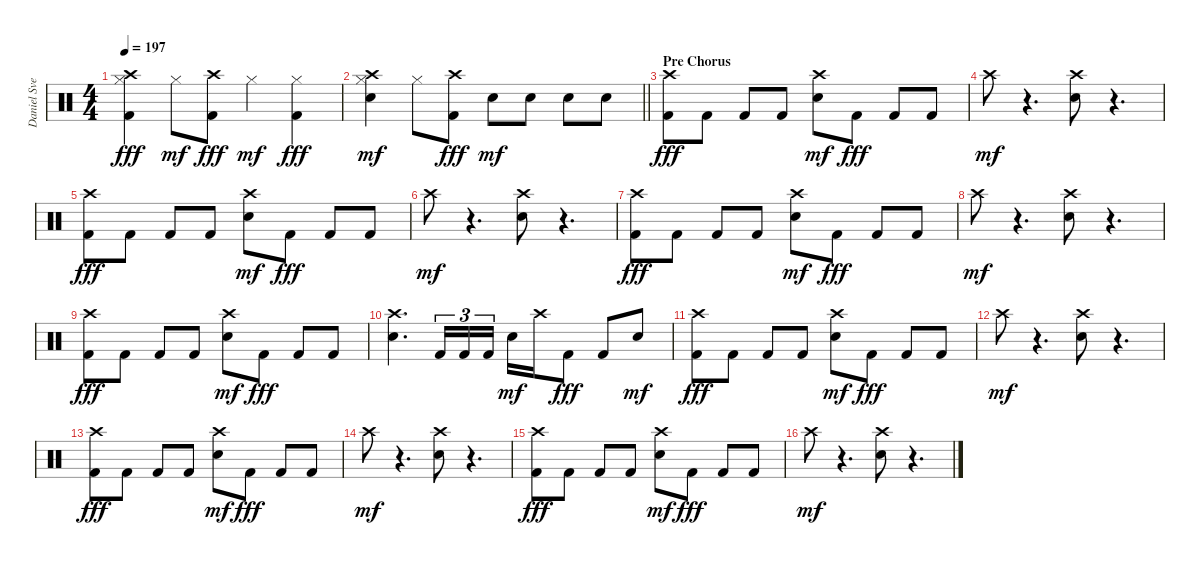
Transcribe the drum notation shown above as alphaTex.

\track ("Daniel Svensson" "Daniel Sve") {instrument percussion}
\staff {score}
\articulation defaults
\ts (4 4)
\tempo 197
\clef neutral
\ks c
("Crash high (hit)" "Hi-Hat (closed)" "Kick (hit) 2").4{dy fff} "Hi-Hat (closed)".8{dy mf} ("Crash high (hit)" "Kick (hit) 2").8{dy fff} "Hi-Hat (closed)".4{dy mf} ("Hi-Hat (closed)" "Kick (hit) 2").4{dy fff} |
\barLineRight lightlight
("Crash high (hit)" "Hi-Hat (closed)" "Electric Snare (hit)").4{dy mf} "Hi-Hat (closed)".8 ("Crash high (hit)" "Kick (hit) 2").8{dy fff} "Electric Snare (hit)".8{dy mf} "Electric Snare (hit)".8 "Electric Snare (hit)".8 "Electric Snare (hit)".8 |
\section ("" "Pre Chorus")
("Crash high (hit)" "Kick (hit) 2").8{dy fff} "Kick (hit) 2".8 "Kick (hit) 2".8 "Kick (hit) 2".8 ("Crash high (hit)" "Electric Snare (hit)").8{dy mf} "Kick (hit) 2".8{dy fff} "Kick (hit) 2".8 "Kick (hit) 2".8 |
"Crash high (hit)".8{dy mf} r.4{d} ("Crash high (hit)" "Electric Snare (hit)").8 r.4{d} |
("Crash high (hit)" "Kick (hit) 2").8{dy fff} "Kick (hit) 2".8 "Kick (hit) 2".8 "Kick (hit) 2".8 ("Crash high (hit)" "Electric Snare (hit)").8{dy mf} "Kick (hit) 2".8{dy fff} "Kick (hit) 2".8 "Kick (hit) 2".8 |
"Crash high (hit)".8{dy mf} r.4{d} ("Crash high (hit)" "Electric Snare (hit)").8 r.4{d} |
("Crash high (hit)" "Kick (hit) 2").8{dy fff} "Kick (hit) 2".8 "Kick (hit) 2".8 "Kick (hit) 2".8 ("Crash high (hit)" "Electric Snare (hit)").8{dy mf} "Kick (hit) 2".8{dy fff} "Kick (hit) 2".8 "Kick (hit) 2".8 |
"Crash high (hit)".8{dy mf} r.4{d} ("Crash high (hit)" "Electric Snare (hit)").8 r.4{d} |
("Crash high (hit)" "Kick (hit) 2").8{dy fff} "Kick (hit) 2".8 "Kick (hit) 2".8 "Kick (hit) 2".8 ("Crash high (hit)" "Electric Snare (hit)").8{dy mf} "Kick (hit) 2".8{dy fff} "Kick (hit) 2".8 "Kick (hit) 2".8 |
("Crash high (hit)" "Electric Snare (hit)").4{d} "Kick (hit) 2".16{tu (3 2)} "Kick (hit) 2".16{tu (3 2)} "Kick (hit) 2".16{tu (3 2)} "Electric Snare (hit)".16{dy mf} "Crash high (hit)".16 "Kick (hit) 2".8{dy fff} "Kick (hit) 2".8 "Electric Snare (hit)".8{dy mf} |
("Crash high (hit)" "Kick (hit) 2").8{dy fff} "Kick (hit) 2".8 "Kick (hit) 2".8 "Kick (hit) 2".8 ("Crash high (hit)" "Electric Snare (hit)").8{dy mf} "Kick (hit) 2".8{dy fff} "Kick (hit) 2".8 "Kick (hit) 2".8 |
"Crash high (hit)".8{dy mf} r.4{d} ("Crash high (hit)" "Electric Snare (hit)").8 r.4{d} |
("Crash high (hit)" "Kick (hit) 2").8{dy fff} "Kick (hit) 2".8 "Kick (hit) 2".8 "Kick (hit) 2".8 ("Crash high (hit)" "Electric Snare (hit)").8{dy mf} "Kick (hit) 2".8{dy fff} "Kick (hit) 2".8 "Kick (hit) 2".8 |
"Crash high (hit)".8{dy mf} r.4{d} ("Crash high (hit)" "Electric Snare (hit)").8 r.4{d} |
("Crash high (hit)" "Kick (hit) 2").8{dy fff} "Kick (hit) 2".8 "Kick (hit) 2".8 "Kick (hit) 2".8 ("Crash high (hit)" "Electric Snare (hit)").8{dy mf} "Kick (hit) 2".8{dy fff} "Kick (hit) 2".8 "Kick (hit) 2".8 |
"Crash high (hit)".8{dy mf} r.4{d} ("Crash high (hit)" "Electric Snare (hit)").8 r.4{d}
